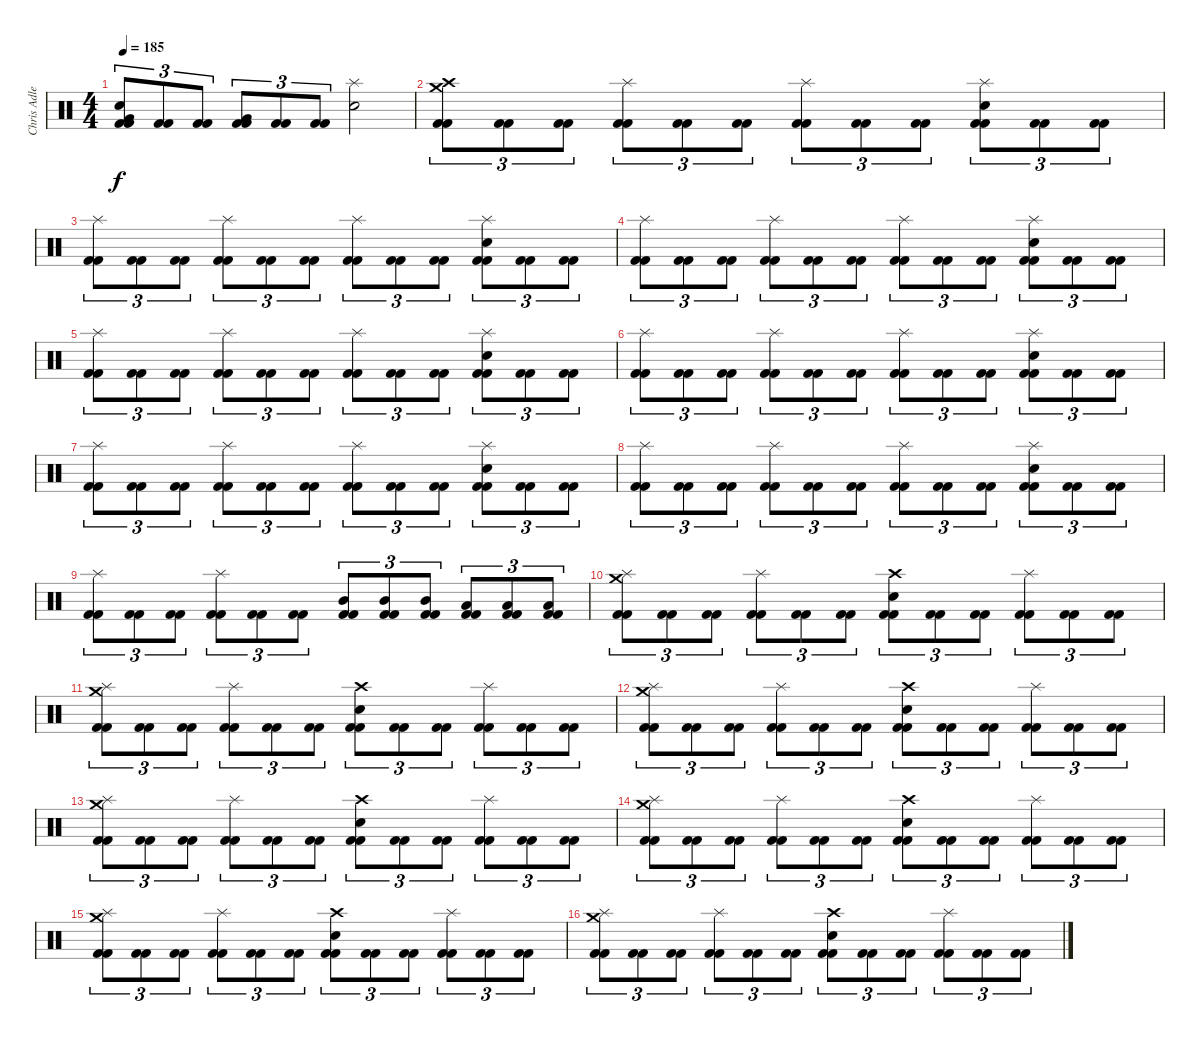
\track ("Chris Adler" "Chris Adle") {instrument percussion}
\staff {score}
\articulation defaults
\ts (4 4)
\tempo 185
\clef neutral
\ks c
("Very Low Tom (hit)" "Electric Snare (hit)" "Kick (hit) 2" "Kick (hit) 2").8{tu (3 2) dy f} ("Kick (hit) 2" "Kick (hit) 2").8{tu (3 2)} ("Kick (hit) 2" "Kick (hit) 2").8{tu (3 2)} ("Very Low Tom (hit)" "Kick (hit) 2" "Kick (hit) 2").8{tu (3 2)} ("Kick (hit) 2" "Kick (hit) 2").8{tu (3 2)} ("Kick (hit) 2" "Kick (hit) 2").8{tu (3 2)} ("Splash (hit)" "Electric Snare (hit)").2 |
("Crash medium (hit)" "Crash high (hit)" "Kick (hit) 2" "Kick (hit) 2").8{tu (3 2)} ("Kick (hit) 2" "Kick (hit) 2").8{tu (3 2)} ("Kick (hit) 2" "Kick (hit) 2").8{tu (3 2)} ("Splash (hit)" "Kick (hit) 2" "Kick (hit) 2").8{tu (3 2)} ("Kick (hit) 2" "Kick (hit) 2").8{tu (3 2)} ("Kick (hit) 2" "Kick (hit) 2").8{tu (3 2)} ("Splash (hit)" "Kick (hit) 2" "Kick (hit) 2").8{tu (3 2)} ("Kick (hit) 2" "Kick (hit) 2").8{tu (3 2)} ("Kick (hit) 2" "Kick (hit) 2").8{tu (3 2)} ("Splash (hit)" "Electric Snare (hit)" "Kick (hit) 2" "Kick (hit) 2").8{tu (3 2)} ("Kick (hit) 2" "Kick (hit) 2").8{tu (3 2)} ("Kick (hit) 2" "Kick (hit) 2").8{tu (3 2)} |
("Splash (hit)" "Kick (hit) 2" "Kick (hit) 2").8{tu (3 2)} ("Kick (hit) 2" "Kick (hit) 2").8{tu (3 2)} ("Kick (hit) 2" "Kick (hit) 2").8{tu (3 2)} ("Splash (hit)" "Kick (hit) 2" "Kick (hit) 2").8{tu (3 2)} ("Kick (hit) 2" "Kick (hit) 2").8{tu (3 2)} ("Kick (hit) 2" "Kick (hit) 2").8{tu (3 2)} ("Splash (hit)" "Kick (hit) 2" "Kick (hit) 2").8{tu (3 2)} ("Kick (hit) 2" "Kick (hit) 2").8{tu (3 2)} ("Kick (hit) 2" "Kick (hit) 2").8{tu (3 2)} ("Splash (hit)" "Electric Snare (hit)" "Kick (hit) 2" "Kick (hit) 2").8{tu (3 2)} ("Kick (hit) 2" "Kick (hit) 2").8{tu (3 2)} ("Kick (hit) 2" "Kick (hit) 2").8{tu (3 2)} |
("Splash (hit)" "Kick (hit) 2" "Kick (hit) 2").8{tu (3 2)} ("Kick (hit) 2" "Kick (hit) 2").8{tu (3 2)} ("Kick (hit) 2" "Kick (hit) 2").8{tu (3 2)} ("Splash (hit)" "Kick (hit) 2" "Kick (hit) 2").8{tu (3 2)} ("Kick (hit) 2" "Kick (hit) 2").8{tu (3 2)} ("Kick (hit) 2" "Kick (hit) 2").8{tu (3 2)} ("Splash (hit)" "Kick (hit) 2" "Kick (hit) 2").8{tu (3 2)} ("Kick (hit) 2" "Kick (hit) 2").8{tu (3 2)} ("Kick (hit) 2" "Kick (hit) 2").8{tu (3 2)} ("Splash (hit)" "Electric Snare (hit)" "Kick (hit) 2" "Kick (hit) 2").8{tu (3 2)} ("Kick (hit) 2" "Kick (hit) 2").8{tu (3 2)} ("Kick (hit) 2" "Kick (hit) 2").8{tu (3 2)} |
("Splash (hit)" "Kick (hit) 2" "Kick (hit) 2").8{tu (3 2)} ("Kick (hit) 2" "Kick (hit) 2").8{tu (3 2)} ("Kick (hit) 2" "Kick (hit) 2").8{tu (3 2)} ("Splash (hit)" "Kick (hit) 2" "Kick (hit) 2").8{tu (3 2)} ("Kick (hit) 2" "Kick (hit) 2").8{tu (3 2)} ("Kick (hit) 2" "Kick (hit) 2").8{tu (3 2)} ("Splash (hit)" "Kick (hit) 2" "Kick (hit) 2").8{tu (3 2)} ("Kick (hit) 2" "Kick (hit) 2").8{tu (3 2)} ("Kick (hit) 2" "Kick (hit) 2").8{tu (3 2)} ("Splash (hit)" "Electric Snare (hit)" "Kick (hit) 2" "Kick (hit) 2").8{tu (3 2)} ("Kick (hit) 2" "Kick (hit) 2").8{tu (3 2)} ("Kick (hit) 2" "Kick (hit) 2").8{tu (3 2)} |
("Splash (hit)" "Kick (hit) 2" "Kick (hit) 2").8{tu (3 2)} ("Kick (hit) 2" "Kick (hit) 2").8{tu (3 2)} ("Kick (hit) 2" "Kick (hit) 2").8{tu (3 2)} ("Splash (hit)" "Kick (hit) 2" "Kick (hit) 2").8{tu (3 2)} ("Kick (hit) 2" "Kick (hit) 2").8{tu (3 2)} ("Kick (hit) 2" "Kick (hit) 2").8{tu (3 2)} ("Splash (hit)" "Kick (hit) 2" "Kick (hit) 2").8{tu (3 2)} ("Kick (hit) 2" "Kick (hit) 2").8{tu (3 2)} ("Kick (hit) 2" "Kick (hit) 2").8{tu (3 2)} ("Splash (hit)" "Electric Snare (hit)" "Kick (hit) 2" "Kick (hit) 2").8{tu (3 2)} ("Kick (hit) 2" "Kick (hit) 2").8{tu (3 2)} ("Kick (hit) 2" "Kick (hit) 2").8{tu (3 2)} |
("Splash (hit)" "Kick (hit) 2" "Kick (hit) 2").8{tu (3 2)} ("Kick (hit) 2" "Kick (hit) 2").8{tu (3 2)} ("Kick (hit) 2" "Kick (hit) 2").8{tu (3 2)} ("Splash (hit)" "Kick (hit) 2" "Kick (hit) 2").8{tu (3 2)} ("Kick (hit) 2" "Kick (hit) 2").8{tu (3 2)} ("Kick (hit) 2" "Kick (hit) 2").8{tu (3 2)} ("Splash (hit)" "Kick (hit) 2" "Kick (hit) 2").8{tu (3 2)} ("Kick (hit) 2" "Kick (hit) 2").8{tu (3 2)} ("Kick (hit) 2" "Kick (hit) 2").8{tu (3 2)} ("Splash (hit)" "Electric Snare (hit)" "Kick (hit) 2" "Kick (hit) 2").8{tu (3 2)} ("Kick (hit) 2" "Kick (hit) 2").8{tu (3 2)} ("Kick (hit) 2" "Kick (hit) 2").8{tu (3 2)} |
("Splash (hit)" "Kick (hit) 2" "Kick (hit) 2").8{tu (3 2)} ("Kick (hit) 2" "Kick (hit) 2").8{tu (3 2)} ("Kick (hit) 2" "Kick (hit) 2").8{tu (3 2)} ("Splash (hit)" "Kick (hit) 2" "Kick (hit) 2").8{tu (3 2)} ("Kick (hit) 2" "Kick (hit) 2").8{tu (3 2)} ("Kick (hit) 2" "Kick (hit) 2").8{tu (3 2)} ("Splash (hit)" "Kick (hit) 2" "Kick (hit) 2").8{tu (3 2)} ("Kick (hit) 2" "Kick (hit) 2").8{tu (3 2)} ("Kick (hit) 2" "Kick (hit) 2").8{tu (3 2)} ("Splash (hit)" "Electric Snare (hit)" "Kick (hit) 2" "Kick (hit) 2").8{tu (3 2)} ("Kick (hit) 2" "Kick (hit) 2").8{tu (3 2)} ("Kick (hit) 2" "Kick (hit) 2").8{tu (3 2)} |
("Splash (hit)" "Kick (hit) 2" "Kick (hit) 2").8{tu (3 2)} ("Kick (hit) 2" "Kick (hit) 2").8{tu (3 2)} ("Kick (hit) 2" "Kick (hit) 2").8{tu (3 2)} ("Splash (hit)" "Kick (hit) 2" "Kick (hit) 2").8{tu (3 2)} ("Kick (hit) 2" "Kick (hit) 2").8{tu (3 2)} ("Kick (hit) 2" "Kick (hit) 2").8{tu (3 2)} ("Mid Tom (hit)" "Kick (hit) 2" "Kick (hit) 2").8{tu (3 2)} ("Mid Tom (hit)" "Kick (hit) 2" "Kick (hit) 2").8{tu (3 2)} ("Mid Tom (hit)" "Kick (hit) 2" "Kick (hit) 2").8{tu (3 2)} ("Low Tom (hit)" "Kick (hit) 2" "Kick (hit) 2").8{tu (3 2)} ("Low Tom (hit)" "Kick (hit) 2" "Kick (hit) 2").8{tu (3 2)} ("Low Tom (hit)" "Kick (hit) 2" "Kick (hit) 2").8{tu (3 2)} |
("Crash medium (hit)" "Splash (hit)" "Kick (hit) 2" "Kick (hit) 2").8{tu (3 2)} ("Kick (hit) 2" "Kick (hit) 2").8{tu (3 2)} ("Kick (hit) 2" "Kick (hit) 2").8{tu (3 2)} ("Splash (hit)" "Kick (hit) 2" "Kick (hit) 2").8{tu (3 2)} ("Kick (hit) 2" "Kick (hit) 2").8{tu (3 2)} ("Kick (hit) 2" "Kick (hit) 2").8{tu (3 2)} ("Crash high (hit)" "Electric Snare (hit)" "Kick (hit) 2" "Kick (hit) 2").8{tu (3 2)} ("Kick (hit) 2" "Kick (hit) 2").8{tu (3 2)} ("Kick (hit) 2" "Kick (hit) 2").8{tu (3 2)} ("Splash (hit)" "Kick (hit) 2" "Kick (hit) 2").8{tu (3 2)} ("Kick (hit) 2" "Kick (hit) 2").8{tu (3 2)} ("Kick (hit) 2" "Kick (hit) 2").8{tu (3 2)} |
("Crash medium (hit)" "Splash (hit)" "Kick (hit) 2" "Kick (hit) 2").8{tu (3 2)} ("Kick (hit) 2" "Kick (hit) 2").8{tu (3 2)} ("Kick (hit) 2" "Kick (hit) 2").8{tu (3 2)} ("Splash (hit)" "Kick (hit) 2" "Kick (hit) 2").8{tu (3 2)} ("Kick (hit) 2" "Kick (hit) 2").8{tu (3 2)} ("Kick (hit) 2" "Kick (hit) 2").8{tu (3 2)} ("Crash high (hit)" "Electric Snare (hit)" "Kick (hit) 2" "Kick (hit) 2").8{tu (3 2)} ("Kick (hit) 2" "Kick (hit) 2").8{tu (3 2)} ("Kick (hit) 2" "Kick (hit) 2").8{tu (3 2)} ("Splash (hit)" "Kick (hit) 2" "Kick (hit) 2").8{tu (3 2)} ("Kick (hit) 2" "Kick (hit) 2").8{tu (3 2)} ("Kick (hit) 2" "Kick (hit) 2").8{tu (3 2)} |
("Crash medium (hit)" "Splash (hit)" "Kick (hit) 2" "Kick (hit) 2").8{tu (3 2)} ("Kick (hit) 2" "Kick (hit) 2").8{tu (3 2)} ("Kick (hit) 2" "Kick (hit) 2").8{tu (3 2)} ("Splash (hit)" "Kick (hit) 2" "Kick (hit) 2").8{tu (3 2)} ("Kick (hit) 2" "Kick (hit) 2").8{tu (3 2)} ("Kick (hit) 2" "Kick (hit) 2").8{tu (3 2)} ("Crash high (hit)" "Electric Snare (hit)" "Kick (hit) 2" "Kick (hit) 2").8{tu (3 2)} ("Kick (hit) 2" "Kick (hit) 2").8{tu (3 2)} ("Kick (hit) 2" "Kick (hit) 2").8{tu (3 2)} ("Splash (hit)" "Kick (hit) 2" "Kick (hit) 2").8{tu (3 2)} ("Kick (hit) 2" "Kick (hit) 2").8{tu (3 2)} ("Kick (hit) 2" "Kick (hit) 2").8{tu (3 2)} |
("Crash medium (hit)" "Splash (hit)" "Kick (hit) 2" "Kick (hit) 2").8{tu (3 2)} ("Kick (hit) 2" "Kick (hit) 2").8{tu (3 2)} ("Kick (hit) 2" "Kick (hit) 2").8{tu (3 2)} ("Splash (hit)" "Kick (hit) 2" "Kick (hit) 2").8{tu (3 2)} ("Kick (hit) 2" "Kick (hit) 2").8{tu (3 2)} ("Kick (hit) 2" "Kick (hit) 2").8{tu (3 2)} ("Crash high (hit)" "Electric Snare (hit)" "Kick (hit) 2" "Kick (hit) 2").8{tu (3 2)} ("Kick (hit) 2" "Kick (hit) 2").8{tu (3 2)} ("Kick (hit) 2" "Kick (hit) 2").8{tu (3 2)} ("Splash (hit)" "Kick (hit) 2" "Kick (hit) 2").8{tu (3 2)} ("Kick (hit) 2" "Kick (hit) 2").8{tu (3 2)} ("Kick (hit) 2" "Kick (hit) 2").8{tu (3 2)} |
("Crash medium (hit)" "Splash (hit)" "Kick (hit) 2" "Kick (hit) 2").8{tu (3 2)} ("Kick (hit) 2" "Kick (hit) 2").8{tu (3 2)} ("Kick (hit) 2" "Kick (hit) 2").8{tu (3 2)} ("Splash (hit)" "Kick (hit) 2" "Kick (hit) 2").8{tu (3 2)} ("Kick (hit) 2" "Kick (hit) 2").8{tu (3 2)} ("Kick (hit) 2" "Kick (hit) 2").8{tu (3 2)} ("Crash high (hit)" "Electric Snare (hit)" "Kick (hit) 2" "Kick (hit) 2").8{tu (3 2)} ("Kick (hit) 2" "Kick (hit) 2").8{tu (3 2)} ("Kick (hit) 2" "Kick (hit) 2").8{tu (3 2)} ("Splash (hit)" "Kick (hit) 2" "Kick (hit) 2").8{tu (3 2)} ("Kick (hit) 2" "Kick (hit) 2").8{tu (3 2)} ("Kick (hit) 2" "Kick (hit) 2").8{tu (3 2)} |
("Crash medium (hit)" "Splash (hit)" "Kick (hit) 2" "Kick (hit) 2").8{tu (3 2)} ("Kick (hit) 2" "Kick (hit) 2").8{tu (3 2)} ("Kick (hit) 2" "Kick (hit) 2").8{tu (3 2)} ("Splash (hit)" "Kick (hit) 2" "Kick (hit) 2").8{tu (3 2)} ("Kick (hit) 2" "Kick (hit) 2").8{tu (3 2)} ("Kick (hit) 2" "Kick (hit) 2").8{tu (3 2)} ("Crash high (hit)" "Electric Snare (hit)" "Kick (hit) 2" "Kick (hit) 2").8{tu (3 2)} ("Kick (hit) 2" "Kick (hit) 2").8{tu (3 2)} ("Kick (hit) 2" "Kick (hit) 2").8{tu (3 2)} ("Splash (hit)" "Kick (hit) 2" "Kick (hit) 2").8{tu (3 2)} ("Kick (hit) 2" "Kick (hit) 2").8{tu (3 2)} ("Kick (hit) 2" "Kick (hit) 2").8{tu (3 2)} |
("Crash medium (hit)" "Splash (hit)" "Kick (hit) 2" "Kick (hit) 2").8{tu (3 2)} ("Kick (hit) 2" "Kick (hit) 2").8{tu (3 2)} ("Kick (hit) 2" "Kick (hit) 2").8{tu (3 2)} ("Splash (hit)" "Kick (hit) 2" "Kick (hit) 2").8{tu (3 2)} ("Kick (hit) 2" "Kick (hit) 2").8{tu (3 2)} ("Kick (hit) 2" "Kick (hit) 2").8{tu (3 2)} ("Crash high (hit)" "Electric Snare (hit)" "Kick (hit) 2" "Kick (hit) 2").8{tu (3 2)} ("Kick (hit) 2" "Kick (hit) 2").8{tu (3 2)} ("Kick (hit) 2" "Kick (hit) 2").8{tu (3 2)} ("Splash (hit)" "Kick (hit) 2" "Kick (hit) 2").8{tu (3 2)} ("Kick (hit) 2" "Kick (hit) 2").8{tu (3 2)} ("Kick (hit) 2" "Kick (hit) 2").8{tu (3 2)}
